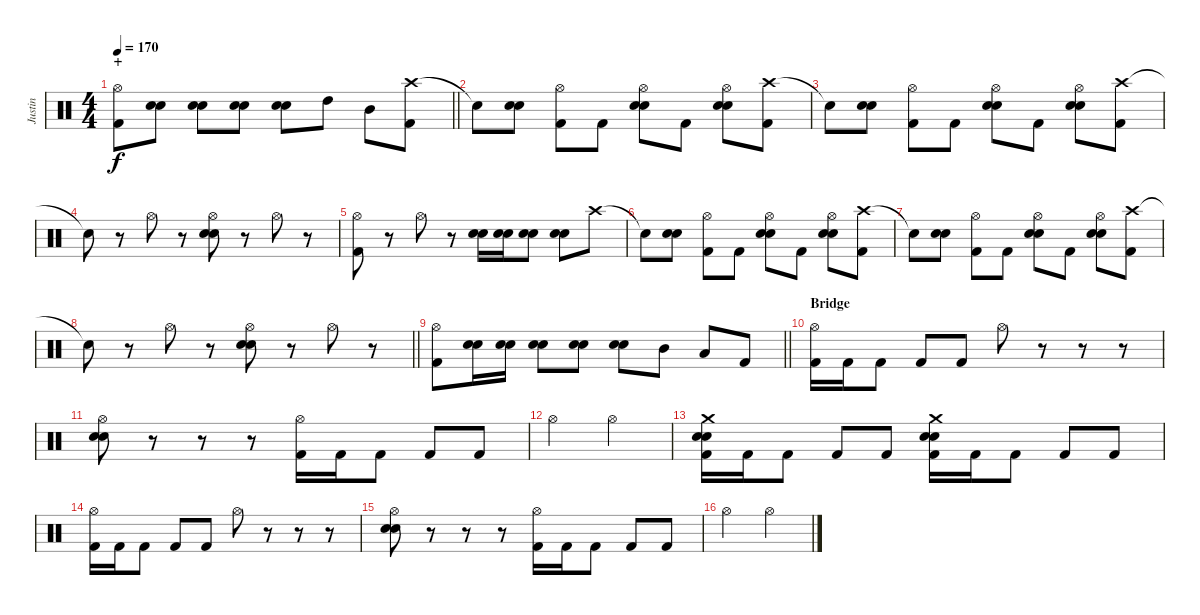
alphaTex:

\track ("Justin" "Justin") {instrument percussion}
\staff {score}
\articulation defaults
\ts (4 4)
\section ("" "+")
\tempo 170
\clef neutral
\barLineRight lightlight
\ks c
("Hi-Hat (open)" "Kick (hit) 2").8{dy f} ("Electric Snare (hit)" "Snare (hit) 2").8 ("Electric Snare (hit)" "Snare (hit) 2").8 ("Electric Snare (hit)" "Snare (hit) 2").8 ("Electric Snare (hit)" "Snare (hit) 2").8 "High Tom (hit)".8 "Mid Tom (hit)".8 ("Crash high (hit)" "Kick (hit) 2").8 |
"Snare (hit)"{t}.8 ("Electric Snare (hit)" "Snare (hit) 2").8 ("Hi-Hat (open)" "Kick (hit) 2").8 "Kick (hit) 2".8 ("Hi-Hat (open)" "Electric Snare (hit)" "Snare (hit) 2").8 "Kick (hit) 2".8 ("Hi-Hat (open)" "Electric Snare (hit)" "Snare (hit) 2").8 ("Crash high (hit)" "Kick (hit) 2").8 |
"Snare (hit)"{t}.8 ("Electric Snare (hit)" "Snare (hit) 2").8 ("Hi-Hat (open)" "Kick (hit) 2").8 "Kick (hit) 2".8 ("Hi-Hat (open)" "Electric Snare (hit)" "Snare (hit) 2").8 "Kick (hit) 2".8 ("Hi-Hat (open)" "Electric Snare (hit)" "Snare (hit) 2").8 ("Crash high (hit)" "Kick (hit) 2").8 |
"Snare (hit)"{t}.8 r.8 "Hi-Hat (open)".8 r.8 ("Hi-Hat (open)" "Electric Snare (hit)" "Snare (hit) 2").8 r.8 "Hi-Hat (open)".8 r.8 |
("Hi-Hat (open)" "Kick (hit) 2").8 r.8 "Hi-Hat (open)".8 r.8 ("Electric Snare (hit)" "Snare (hit) 2").16 ("Electric Snare (hit)" "Snare (hit) 2").16 ("Electric Snare (hit)" "Snare (hit) 2").8 ("Electric Snare (hit)" "Snare (hit) 2").8 "Crash high (hit)".8 |
"Snare (hit)"{t}.8 ("Electric Snare (hit)" "Snare (hit) 2").8 ("Hi-Hat (open)" "Kick (hit) 2").8 "Kick (hit) 2".8 ("Hi-Hat (open)" "Electric Snare (hit)" "Snare (hit) 2").8 "Kick (hit) 2".8 ("Hi-Hat (open)" "Electric Snare (hit)" "Snare (hit) 2").8 ("Crash high (hit)" "Kick (hit) 2").8 |
"Snare (hit)"{t}.8 ("Electric Snare (hit)" "Snare (hit) 2").8 ("Hi-Hat (open)" "Kick (hit) 2").8 "Kick (hit) 2".8 ("Hi-Hat (open)" "Electric Snare (hit)" "Snare (hit) 2").8 "Kick (hit) 2".8 ("Hi-Hat (open)" "Electric Snare (hit)" "Snare (hit) 2").8 ("Crash high (hit)" "Kick (hit) 2").8 |
\barLineRight lightlight "Snare (hit)"{t}.8
r.8 "Hi-Hat (open)".8 r.8 ("Hi-Hat (open)" "Electric Snare (hit)" "Snare (hit) 2").8 r.8 "Hi-Hat (open)".8 r.8 |
\barLineRight lightlight
("Hi-Hat (open)" "Kick (hit) 2").8 ("Electric Snare (hit)" "Snare (hit) 2").16 ("Electric Snare (hit)" "Snare (hit) 2").16 ("Electric Snare (hit)" "Snare (hit) 2").8 ("Electric Snare (hit)" "Snare (hit) 2").8 ("Electric Snare (hit)" "Snare (hit) 2").8 "Mid Tom (hit)".8 "Low Tom (hit)".8 "Kick (hit) 2".8 |
\section ("" "Bridge")
("Hi-Hat (open)" "Kick (hit) 2").16 "Kick (hit) 2".16 "Kick (hit) 2".8 "Kick (hit) 2".8 "Kick (hit) 2".8 "Hi-Hat (open)".8 r.8 r.8 r.8 |
("Hi-Hat (open)" "Electric Snare (hit)" "Snare (hit) 2").8 r.8 r.8 r.8 ("Hi-Hat (open)" "Kick (hit) 2").16 "Kick (hit) 2".16 "Kick (hit) 2".8 "Kick (hit) 2".8 "Kick (hit) 2".8 |
"Hi-Hat (open)".2 "Hi-Hat (open)".2 |
("Crash medium (hit)" "Electric Snare (hit)" "Snare (hit) 2" "Kick (hit) 2").16 "Kick (hit) 2".16 "Kick (hit) 2".8 "Kick (hit) 2".8 "Kick (hit) 2".8 ("Crash medium (hit)" "Electric Snare (hit)" "Snare (hit) 2" "Kick (hit) 2").16 "Kick (hit) 2".16 "Kick (hit) 2".8 "Kick (hit) 2".8 "Kick (hit) 2".8 |
("Hi-Hat (open)" "Kick (hit) 2").16 "Kick (hit) 2".16 "Kick (hit) 2".8 "Kick (hit) 2".8 "Kick (hit) 2".8 "Hi-Hat (open)".8 r.8 r.8 r.8 |
("Hi-Hat (open)" "Electric Snare (hit)" "Snare (hit) 2").8 r.8 r.8 r.8 ("Hi-Hat (open)" "Kick (hit) 2").16 "Kick (hit) 2".16 "Kick (hit) 2".8 "Kick (hit) 2".8 "Kick (hit) 2".8 |
"Hi-Hat (open)".2 "Hi-Hat (open)".2
